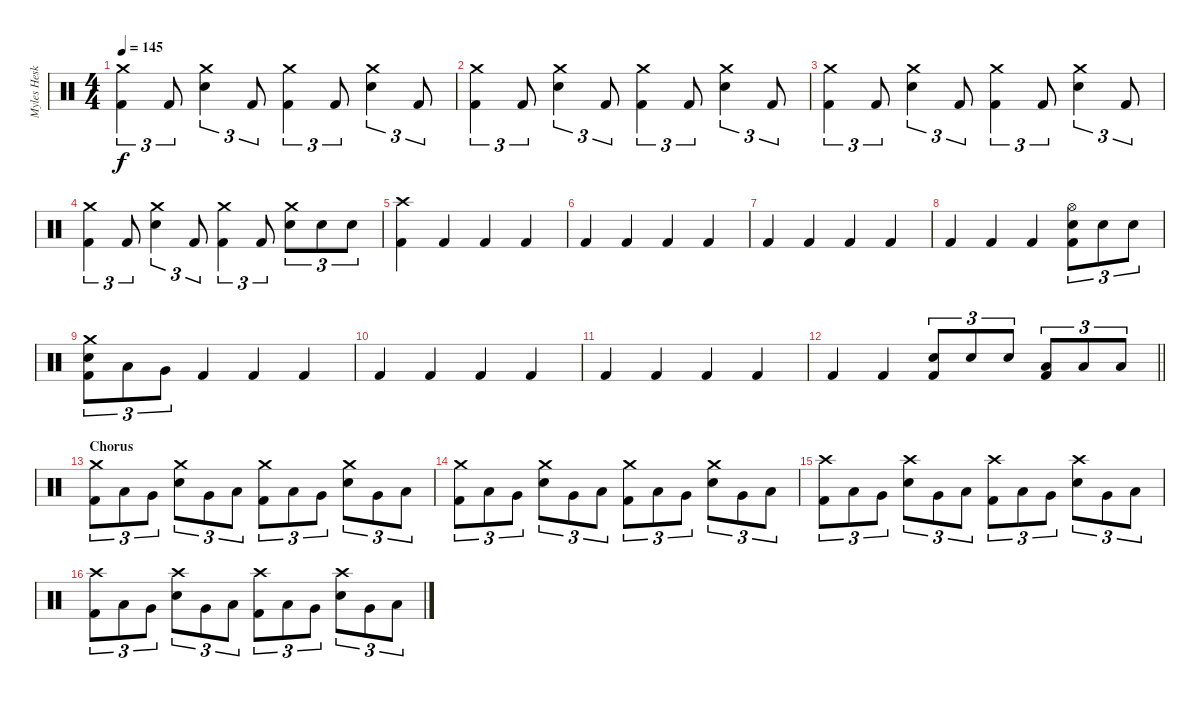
\track ("Myles Heskett" "Myles Hesk") {instrument percussion}
\staff {score}
\articulation defaults
\ts (4 4)
\tempo 145
\clef neutral
\ks c
("Crash medium (hit)" "Kick (hit) 2").4{tu (3 2) dy f} "Kick (hit) 2".8{tu (3 2)} ("Crash medium (hit)" "Snare (hit) 2").4{tu (3 2)} "Kick (hit) 2".8{tu (3 2)} ("Crash medium (hit)" "Kick (hit) 2").4{tu (3 2)} "Kick (hit) 2".8{tu (3 2)} ("Crash medium (hit)" "Snare (hit) 2").4{tu (3 2)} "Kick (hit) 2".8{tu (3 2)} |
("Crash medium (hit)" "Kick (hit) 2").4{tu (3 2)} "Kick (hit) 2".8{tu (3 2)} ("Crash medium (hit)" "Snare (hit) 2").4{tu (3 2)} "Kick (hit) 2".8{tu (3 2)} ("Crash medium (hit)" "Kick (hit) 2").4{tu (3 2)} "Kick (hit) 2".8{tu (3 2)} ("Crash medium (hit)" "Snare (hit) 2").4{tu (3 2)} "Kick (hit) 2".8{tu (3 2)} |
("Crash medium (hit)" "Kick (hit) 2").4{tu (3 2)} "Kick (hit) 2".8{tu (3 2)} ("Crash medium (hit)" "Snare (hit) 2").4{tu (3 2)} "Kick (hit) 2".8{tu (3 2)} ("Crash medium (hit)" "Kick (hit) 2").4{tu (3 2)} "Kick (hit) 2".8{tu (3 2)} ("Crash medium (hit)" "Snare (hit) 2").4{tu (3 2)} "Kick (hit) 2".8{tu (3 2)} |
("Crash medium (hit)" "Kick (hit) 2").4{tu (3 2)} "Kick (hit) 2".8{tu (3 2)} ("Crash medium (hit)" "Snare (hit) 2").4{tu (3 2)} "Kick (hit) 2".8{tu (3 2)} ("Crash medium (hit)" "Kick (hit) 2").4{tu (3 2)} "Kick (hit) 2".8{tu (3 2)} ("Crash medium (hit)" "Snare (hit) 2").8{tu (3 2)} "Snare (hit) 2".8{tu (3 2)} "Snare (hit) 2".8{tu (3 2)} |
("Crash high (hit)" "Kick (hit) 2").4 "Kick (hit) 2".4 "Kick (hit) 2".4 "Kick (hit) 2".4 |
"Kick (hit) 2".4 "Kick (hit) 2".4 "Kick (hit) 2".4 "Kick (hit) 2".4 |
"Kick (hit) 2".4 "Kick (hit) 2".4 "Kick (hit) 2".4 "Kick (hit) 2".4 |
"Kick (hit) 2".4 "Kick (hit) 2".4 "Kick (hit) 2".4 ("Hi-Hat (open)" "Snare (hit) 2" "Kick (hit) 2").8{tu (3 2)} "Snare (hit) 2".8{tu (3 2)} "Snare (hit) 2".8{tu (3 2)} |
("Crash medium (hit)" "Snare (hit) 2" "Kick (hit) 2").8{tu (3 2)} "Low Tom (hit)".8{tu (3 2)} "Very Low Tom (hit)".8{tu (3 2)} "Kick (hit) 2".4 "Kick (hit) 2".4 "Kick (hit) 2".4 |
"Kick (hit) 2".4 "Kick (hit) 2".4 "Kick (hit) 2".4 "Kick (hit) 2".4 |
"Kick (hit) 2".4 "Kick (hit) 2".4 "Kick (hit) 2".4 "Kick (hit) 2".4 |
\barLineRight lightlight "Kick (hit) 2".4 "Kick (hit) 2".4
("Snare (hit) 2" "Kick (hit) 2").8{tu (3 2)} "Snare (hit) 2".8{tu (3 2)} "Snare (hit) 2".8{tu (3 2)} ("Low Tom (hit)" "Kick (hit) 2").8{tu (3 2)} "Low Tom (hit)".8{tu (3 2)} "Low Tom (hit)".8{tu (3 2)} |
\section ("" "Chorus")
("Crash medium (hit)" "Kick (hit) 2").8{tu (3 2)} "Low Tom (hit)".8{tu (3 2)} "Very Low Tom (hit)".8{tu (3 2)} ("Crash medium (hit)" "Snare (hit) 2").8{tu (3 2)} "Very Low Tom (hit)".8{tu (3 2)} "Low Tom (hit)".8{tu (3 2)} ("Crash medium (hit)" "Kick (hit) 2").8{tu (3 2)} "Low Tom (hit)".8{tu (3 2)} "Very Low Tom (hit)".8{tu (3 2)} ("Crash medium (hit)" "Snare (hit) 2").8{tu (3 2)} "Very Low Tom (hit)".8{tu (3 2)} "Low Tom (hit)".8{tu (3 2)} |
("Crash medium (hit)" "Kick (hit) 2").8{tu (3 2)} "Low Tom (hit)".8{tu (3 2)} "Very Low Tom (hit)".8{tu (3 2)} ("Crash medium (hit)" "Snare (hit) 2").8{tu (3 2)} "Very Low Tom (hit)".8{tu (3 2)} "Low Tom (hit)".8{tu (3 2)} ("Crash medium (hit)" "Kick (hit) 2").8{tu (3 2)} "Low Tom (hit)".8{tu (3 2)} "Very Low Tom (hit)".8{tu (3 2)} ("Crash medium (hit)" "Snare (hit) 2").8{tu (3 2)} "Very Low Tom (hit)".8{tu (3 2)} "Low Tom (hit)".8{tu (3 2)} |
("Crash high (hit)" "Kick (hit) 2").8{tu (3 2)} "Low Tom (hit)".8{tu (3 2)} "Very Low Tom (hit)".8{tu (3 2)} ("Crash high (hit)" "Snare (hit) 2").8{tu (3 2)} "Very Low Tom (hit)".8{tu (3 2)} "Low Tom (hit)".8{tu (3 2)} ("Crash high (hit)" "Kick (hit) 2").8{tu (3 2)} "Low Tom (hit)".8{tu (3 2)} "Very Low Tom (hit)".8{tu (3 2)} ("Crash high (hit)" "Snare (hit) 2").8{tu (3 2)} "Very Low Tom (hit)".8{tu (3 2)} "Low Tom (hit)".8{tu (3 2)} |
("Crash high (hit)" "Kick (hit) 2").8{tu (3 2)} "Low Tom (hit)".8{tu (3 2)} "Very Low Tom (hit)".8{tu (3 2)} ("Crash high (hit)" "Snare (hit) 2").8{tu (3 2)} "Very Low Tom (hit)".8{tu (3 2)} "Low Tom (hit)".8{tu (3 2)} ("Crash high (hit)" "Kick (hit) 2").8{tu (3 2)} "Low Tom (hit)".8{tu (3 2)} "Very Low Tom (hit)".8{tu (3 2)} ("Crash high (hit)" "Snare (hit) 2").8{tu (3 2)} "Very Low Tom (hit)".8{tu (3 2)} "Low Tom (hit)".8{tu (3 2)}
